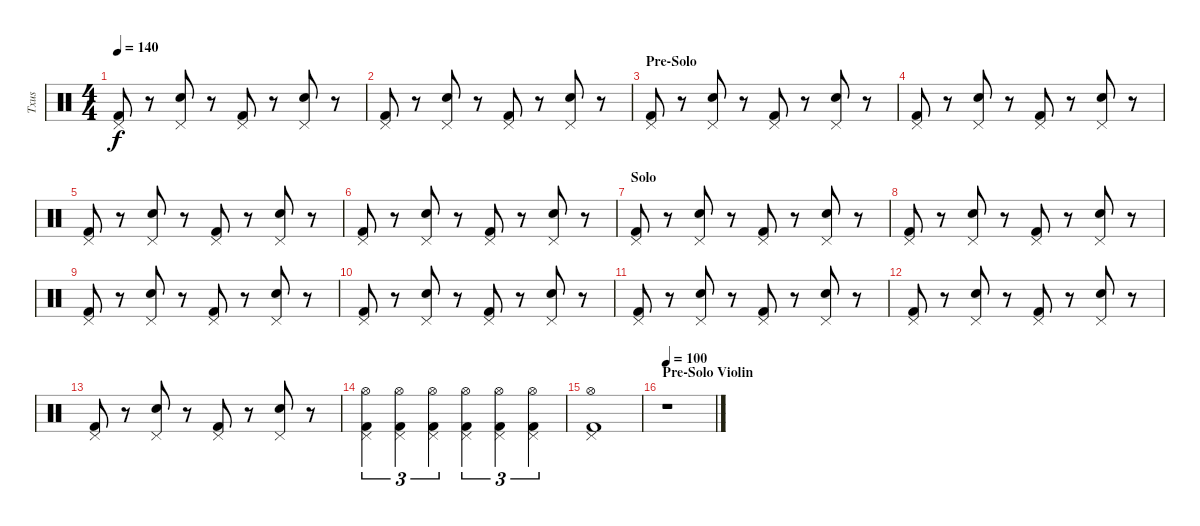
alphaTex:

\track ("Txus" "Txus") {instrument percussion}
\staff {score}
\articulation defaults
\ts (4 4)
\tempo 140
\clef neutral
\ks c
("Pedal Hi-Hat (hit)" "Kick (hit) 2").8{dy f} r.8 ("Pedal Hi-Hat (hit)" "Snare (hit) 2").8 r.8 ("Pedal Hi-Hat (hit)" "Kick (hit) 2").8 r.8 ("Pedal Hi-Hat (hit)" "Snare (hit) 2").8 r.8 |
("Pedal Hi-Hat (hit)" "Kick (hit) 2").8 r.8 ("Pedal Hi-Hat (hit)" "Snare (hit) 2").8 r.8 ("Pedal Hi-Hat (hit)" "Kick (hit) 2").8 r.8 ("Pedal Hi-Hat (hit)" "Snare (hit) 2").8 r.8 |
\section ("" "Pre-Solo")
("Pedal Hi-Hat (hit)" "Kick (hit) 2").8 r.8 ("Pedal Hi-Hat (hit)" "Snare (hit) 2").8 r.8 ("Pedal Hi-Hat (hit)" "Kick (hit) 2").8 r.8 ("Pedal Hi-Hat (hit)" "Snare (hit) 2").8 r.8 |
("Pedal Hi-Hat (hit)" "Kick (hit) 2").8 r.8 ("Pedal Hi-Hat (hit)" "Snare (hit) 2").8 r.8 ("Pedal Hi-Hat (hit)" "Kick (hit) 2").8 r.8 ("Pedal Hi-Hat (hit)" "Snare (hit) 2").8 r.8 |
("Pedal Hi-Hat (hit)" "Kick (hit) 2").8 r.8 ("Pedal Hi-Hat (hit)" "Snare (hit) 2").8 r.8 ("Pedal Hi-Hat (hit)" "Kick (hit) 2").8 r.8 ("Pedal Hi-Hat (hit)" "Snare (hit) 2").8 r.8 |
("Pedal Hi-Hat (hit)" "Kick (hit) 2").8 r.8 ("Pedal Hi-Hat (hit)" "Snare (hit) 2").8 r.8 ("Pedal Hi-Hat (hit)" "Kick (hit) 2").8 r.8 ("Pedal Hi-Hat (hit)" "Snare (hit) 2").8 r.8 |
\section ("" "Solo")
("Pedal Hi-Hat (hit)" "Kick (hit) 2").8 r.8 ("Pedal Hi-Hat (hit)" "Snare (hit) 2").8 r.8 ("Pedal Hi-Hat (hit)" "Kick (hit) 2").8 r.8 ("Pedal Hi-Hat (hit)" "Snare (hit) 2").8 r.8 |
("Pedal Hi-Hat (hit)" "Kick (hit) 2").8 r.8 ("Pedal Hi-Hat (hit)" "Snare (hit) 2").8 r.8 ("Pedal Hi-Hat (hit)" "Kick (hit) 2").8 r.8 ("Pedal Hi-Hat (hit)" "Snare (hit) 2").8 r.8 |
("Pedal Hi-Hat (hit)" "Kick (hit) 2").8 r.8 ("Pedal Hi-Hat (hit)" "Snare (hit) 2").8 r.8 ("Pedal Hi-Hat (hit)" "Kick (hit) 2").8 r.8 ("Pedal Hi-Hat (hit)" "Snare (hit) 2").8 r.8 |
("Pedal Hi-Hat (hit)" "Kick (hit) 2").8 r.8 ("Pedal Hi-Hat (hit)" "Snare (hit) 2").8 r.8 ("Pedal Hi-Hat (hit)" "Kick (hit) 2").8 r.8 ("Pedal Hi-Hat (hit)" "Snare (hit) 2").8 r.8 |
("Pedal Hi-Hat (hit)" "Kick (hit) 2").8 r.8 ("Pedal Hi-Hat (hit)" "Snare (hit) 2").8 r.8 ("Pedal Hi-Hat (hit)" "Kick (hit) 2").8 r.8 ("Pedal Hi-Hat (hit)" "Snare (hit) 2").8 r.8 |
("Pedal Hi-Hat (hit)" "Kick (hit) 2").8 r.8 ("Pedal Hi-Hat (hit)" "Snare (hit) 2").8 r.8 ("Pedal Hi-Hat (hit)" "Kick (hit) 2").8 r.8 ("Pedal Hi-Hat (hit)" "Snare (hit) 2").8 r.8 |
("Pedal Hi-Hat (hit)" "Kick (hit) 2").8 r.8 ("Pedal Hi-Hat (hit)" "Snare (hit) 2").8 r.8 ("Pedal Hi-Hat (hit)" "Kick (hit) 2").8 r.8 ("Pedal Hi-Hat (hit)" "Snare (hit) 2").8 r.8 |
("Pedal Hi-Hat (hit)" "Kick (hit) 2" "Hi-Hat (open)").4{tu (3 2)} ("Pedal Hi-Hat (hit)" "Kick (hit) 2" "Hi-Hat (open)").4{tu (3 2)} ("Pedal Hi-Hat (hit)" "Kick (hit) 2" "Hi-Hat (open)").4{tu (3 2)} ("Pedal Hi-Hat (hit)" "Kick (hit) 2" "Hi-Hat (open)").4{tu (3 2)} ("Pedal Hi-Hat (hit)" "Kick (hit) 2" "Hi-Hat (open)").4{tu (3 2)} ("Pedal Hi-Hat (hit)" "Kick (hit) 2" "Hi-Hat (open)").4{tu (3 2)} |
("Pedal Hi-Hat (hit)" "Kick (hit) 2" "Hi-Hat (open)").1 |
\section ("" "Pre-Solo Violin")
\tempo 100
r.1
